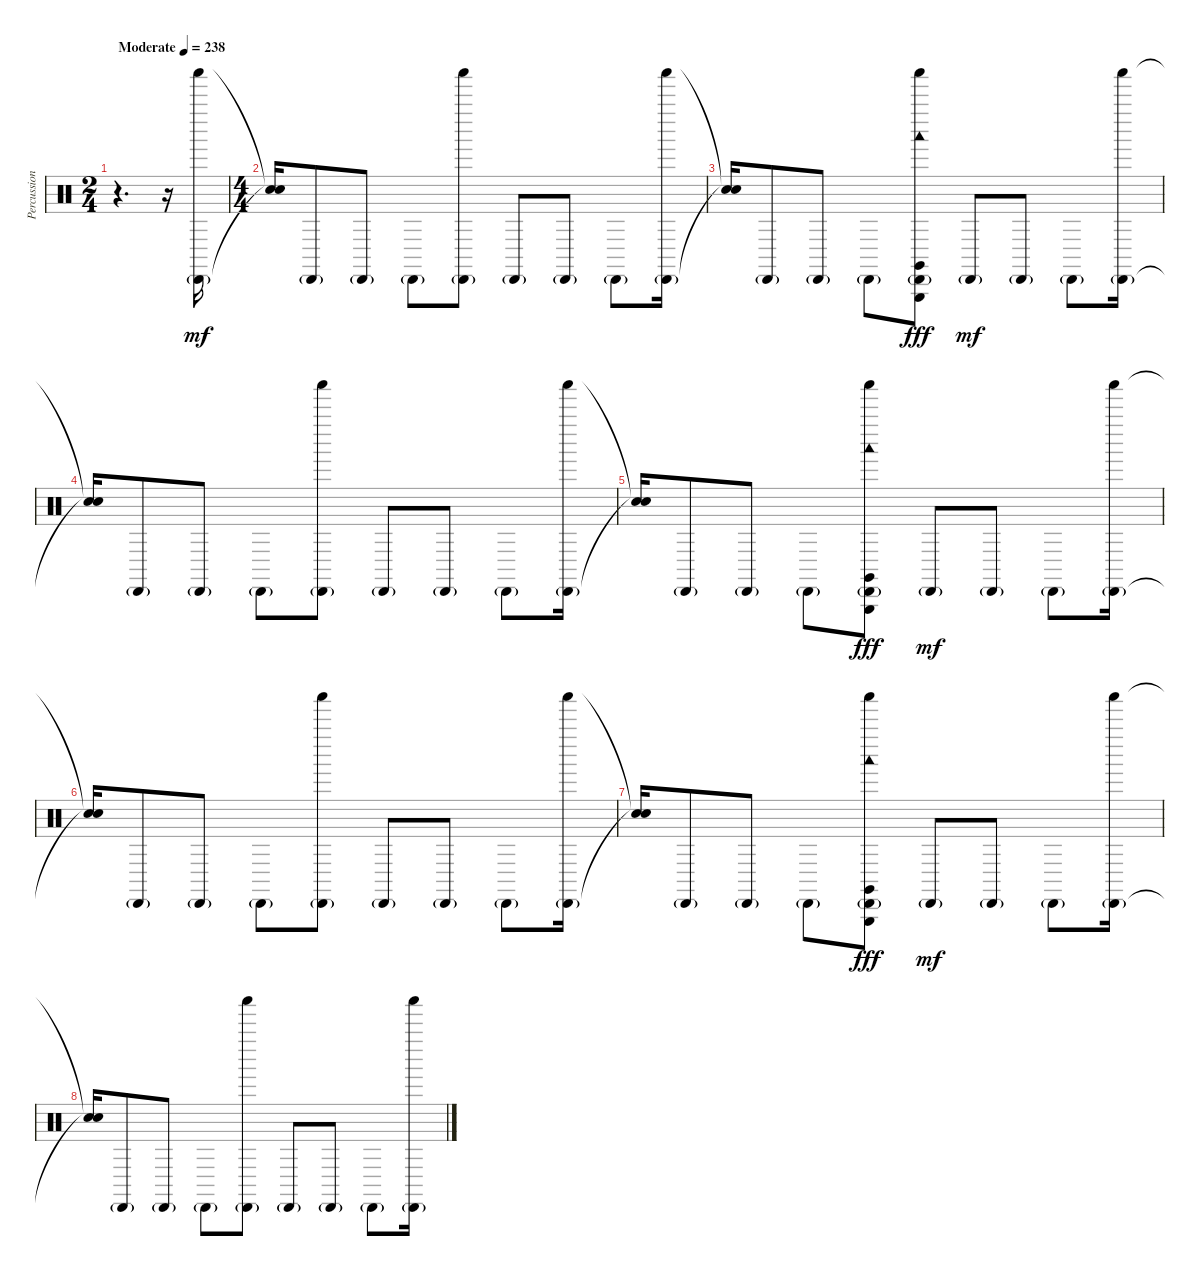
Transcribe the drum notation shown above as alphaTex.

\track ("Percussion" "Percussion") {instrument percussion}
\staff {score}
\articulation defaults
\ts (2 4)
\tempo (238 "Moderate")
\clef neutral
\ks c
r.4{d dy mf volume 12} r.16 ("Shaker (hit)" "Cabasa (hit)"{g}).16 |
\ts (4 4)
("Snare (hit)"{t} "Snare (hit)"{t}).16 "Cabasa (hit)"{g}.8 "Cabasa (hit)"{g}.8 "Cabasa (hit)"{g}.8 ("Shaker (hit)" "Cabasa (hit)"{g}).8 "Cabasa (hit)"{g}.8 "Cabasa (hit)"{g}.8 "Cabasa (hit)"{g}.8 ("Shaker (hit)" "Cabasa (hit)"{g}).16 |
("Snare (hit)"{t} "Snare (hit)"{t}).16 "Cabasa (hit)"{g}.8 "Cabasa (hit)"{g}.8 "Cabasa (hit)"{g}.8 ("Shaker (hit)" "Cabasa (hit)"{g} "Claves (hit)" "Woodblock low (hit)" "Triangle (hit)").8{dy fff} "Cabasa (hit)"{g}.8{dy mf} "Cabasa (hit)"{g}.8 "Cabasa (hit)"{g}.8 ("Shaker (hit)" "Cabasa (hit)"{g}).16 |
("Snare (hit)"{t} "Snare (hit)"{t}).16 "Cabasa (hit)"{g}.8 "Cabasa (hit)"{g}.8 "Cabasa (hit)"{g}.8 ("Shaker (hit)" "Cabasa (hit)"{g}).8 "Cabasa (hit)"{g}.8 "Cabasa (hit)"{g}.8 "Cabasa (hit)"{g}.8 ("Shaker (hit)" "Cabasa (hit)"{g}).16 |
("Snare (hit)"{t} "Snare (hit)"{t}).16 "Cabasa (hit)"{g}.8 "Cabasa (hit)"{g}.8 "Cabasa (hit)"{g}.8 ("Shaker (hit)" "Cabasa (hit)"{g} "Claves (hit)" "Woodblock low (hit)" "Triangle (hit)").8{dy fff} "Cabasa (hit)"{g}.8{dy mf} "Cabasa (hit)"{g}.8 "Cabasa (hit)"{g}.8 ("Shaker (hit)" "Cabasa (hit)"{g}).16 |
("Snare (hit)"{t} "Snare (hit)"{t}).16 "Cabasa (hit)"{g}.8 "Cabasa (hit)"{g}.8 "Cabasa (hit)"{g}.8 ("Shaker (hit)" "Cabasa (hit)"{g}).8 "Cabasa (hit)"{g}.8 "Cabasa (hit)"{g}.8 "Cabasa (hit)"{g}.8 ("Shaker (hit)" "Cabasa (hit)"{g}).16 |
("Snare (hit)"{t} "Snare (hit)"{t}).16 "Cabasa (hit)"{g}.8 "Cabasa (hit)"{g}.8 "Cabasa (hit)"{g}.8 ("Shaker (hit)" "Cabasa (hit)"{g} "Claves (hit)" "Woodblock low (hit)" "Triangle (hit)").8{dy fff} "Cabasa (hit)"{g}.8{dy mf} "Cabasa (hit)"{g}.8 "Cabasa (hit)"{g}.8 ("Shaker (hit)" "Cabasa (hit)"{g}).16 |
("Snare (hit)"{t} "Snare (hit)"{t}).16 "Cabasa (hit)"{g}.8 "Cabasa (hit)"{g}.8 "Cabasa (hit)"{g}.8 ("Shaker (hit)" "Cabasa (hit)"{g}).8 "Cabasa (hit)"{g}.8 "Cabasa (hit)"{g}.8 "Cabasa (hit)"{g}.8 ("Shaker (hit)" "Cabasa (hit)"{g}).16
